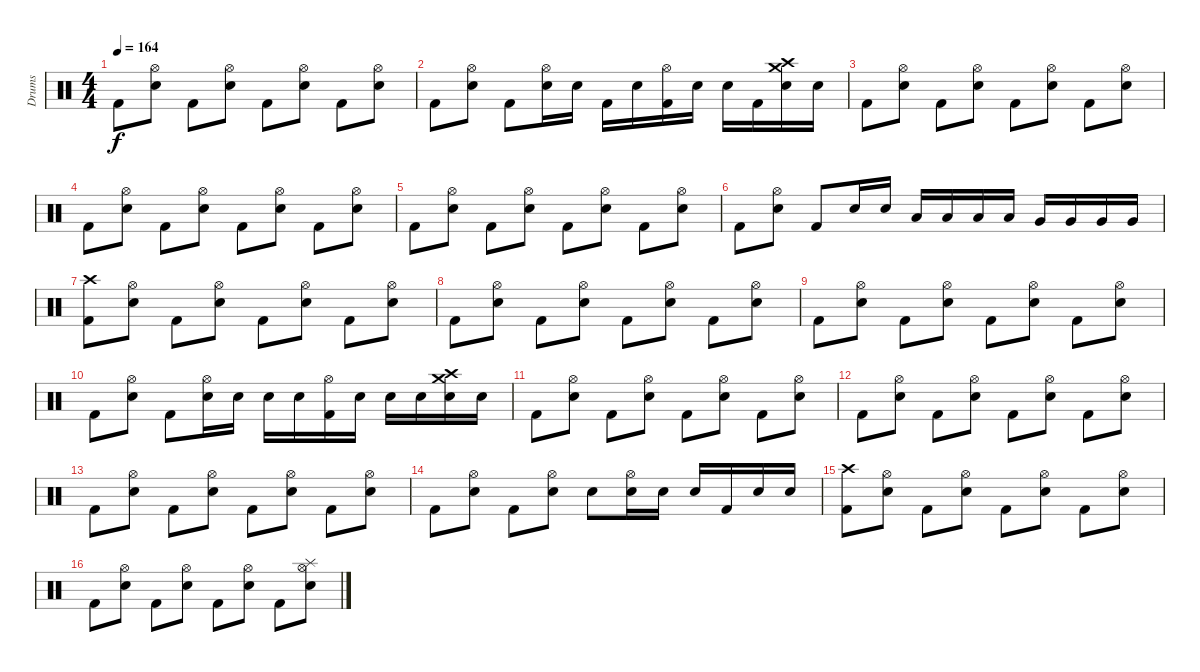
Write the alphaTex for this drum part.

\track ("Drums " "Drums ") {instrument percussion}
\staff {score}
\articulation defaults
\ts (4 4)
\tempo 164
\clef neutral
\ks c "Kick (hit) 2".8{dy f}
("Snare (hit) 2" "Hi-Hat (open)").8 "Kick (hit) 2".8 ("Snare (hit) 2" "Hi-Hat (open)").8 "Kick (hit) 2".8 ("Snare (hit) 2" "Hi-Hat (open)").8 "Kick (hit) 2".8 ("Snare (hit) 2" "Hi-Hat (open)").8 |
"Kick (hit) 2".8 ("Snare (hit) 2" "Hi-Hat (open)").8 "Kick (hit) 2".8 ("Hi-Hat (open)" "Snare (hit) 2").16 "Snare (hit) 2".16 "Kick (hit) 2".16 "Snare (hit) 2".16 ("Kick (hit) 2" "Hi-Hat (open)").16 "Snare (hit) 2".16 "Snare (hit) 2".16 "Kick (hit) 2".16 ("Snare (hit) 2" "Crash high (hit)" "Crash medium (hit)").16 "Snare (hit) 2".16 |
"Kick (hit) 2".8 ("Snare (hit) 2" "Hi-Hat (open)").8 "Kick (hit) 2".8 ("Snare (hit) 2" "Hi-Hat (open)").8 "Kick (hit) 2".8 ("Snare (hit) 2" "Hi-Hat (open)").8 "Kick (hit) 2".8 ("Snare (hit) 2" "Hi-Hat (open)").8 |
"Kick (hit) 2".8 ("Snare (hit) 2" "Hi-Hat (open)").8 "Kick (hit) 2".8 ("Snare (hit) 2" "Hi-Hat (open)").8 "Kick (hit) 2".8 ("Snare (hit) 2" "Hi-Hat (open)").8 "Kick (hit) 2".8 ("Snare (hit) 2" "Hi-Hat (open)").8 |
"Kick (hit) 2".8 ("Snare (hit) 2" "Hi-Hat (open)").8 "Kick (hit) 2".8 ("Snare (hit) 2" "Hi-Hat (open)").8 "Kick (hit) 2".8 ("Snare (hit) 2" "Hi-Hat (open)").8 "Kick (hit) 2".8 ("Snare (hit) 2" "Hi-Hat (open)").8 |
"Kick (hit) 2".8 ("Snare (hit) 2" "Hi-Hat (open)").8 "Kick (hit) 2".8 "Snare (hit) 2".16 "Snare (hit) 2".16 "Low Tom (hit)".16 "Low Tom (hit)".16 "Low Tom (hit)".16 "Low Tom (hit)".16 "Very Low Tom (hit)".16 "Very Low Tom (hit)".16 "Very Low Tom (hit)".16 "Very Low Tom (hit)".16 |
("Crash high (hit)" "Kick (hit) 2").8 ("Snare (hit) 2" "Hi-Hat (open)").8 "Kick (hit) 2".8 ("Snare (hit) 2" "Hi-Hat (open)").8 "Kick (hit) 2".8 ("Snare (hit) 2" "Hi-Hat (open)").8 "Kick (hit) 2".8 ("Snare (hit) 2" "Hi-Hat (open)").8 |
"Kick (hit) 2".8 ("Snare (hit) 2" "Hi-Hat (open)").8 "Kick (hit) 2".8 ("Snare (hit) 2" "Hi-Hat (open)").8 "Kick (hit) 2".8 ("Snare (hit) 2" "Hi-Hat (open)").8 "Kick (hit) 2".8 ("Snare (hit) 2" "Hi-Hat (open)").8 |
"Kick (hit) 2".8 ("Snare (hit) 2" "Hi-Hat (open)").8 "Kick (hit) 2".8 ("Snare (hit) 2" "Hi-Hat (open)").8 "Kick (hit) 2".8 ("Snare (hit) 2" "Hi-Hat (open)").8 "Kick (hit) 2".8 ("Snare (hit) 2" "Hi-Hat (open)").8 |
"Kick (hit) 2".8 ("Snare (hit) 2" "Hi-Hat (open)").8 "Kick (hit) 2".8 ("Hi-Hat (open)" "Snare (hit) 2").16 "Snare (hit) 2".16 "Snare (hit) 2".16 "Snare (hit) 2".16 ("Kick (hit) 2" "Hi-Hat (open)").16 "Snare (hit) 2".16 "Snare (hit) 2".16 "Snare (hit) 2".16 ("Snare (hit) 2" "Crash high (hit)" "Crash medium (hit)").16 "Snare (hit) 2".16 |
"Kick (hit) 2".8 ("Snare (hit) 2" "Hi-Hat (open)").8 "Kick (hit) 2".8 ("Snare (hit) 2" "Hi-Hat (open)").8 "Kick (hit) 2".8 ("Snare (hit) 2" "Hi-Hat (open)").8 "Kick (hit) 2".8 ("Snare (hit) 2" "Hi-Hat (open)").8 |
"Kick (hit) 2".8 ("Snare (hit) 2" "Hi-Hat (open)").8 "Kick (hit) 2".8 ("Snare (hit) 2" "Hi-Hat (open)").8 "Kick (hit) 2".8 ("Snare (hit) 2" "Hi-Hat (open)").8 "Kick (hit) 2".8 ("Snare (hit) 2" "Hi-Hat (open)").8 |
"Kick (hit) 2".8 ("Snare (hit) 2" "Hi-Hat (open)").8 "Kick (hit) 2".8 ("Snare (hit) 2" "Hi-Hat (open)").8 "Kick (hit) 2".8 ("Snare (hit) 2" "Hi-Hat (open)").8 "Kick (hit) 2".8 ("Snare (hit) 2" "Hi-Hat (open)").8 |
"Kick (hit) 2".8 ("Snare (hit) 2" "Hi-Hat (open)").8 "Kick (hit) 2".8 ("Snare (hit) 2" "Hi-Hat (open)").8 "Snare (hit) 2".8 ("Hi-Hat (open)" "Snare (hit) 2").16 "Snare (hit) 2".16 "Snare (hit) 2".16 "Kick (hit) 2".16 "Snare (hit) 2".16 "Snare (hit) 2".16 |
("Kick (hit) 2" "Crash high (hit)").8 ("Snare (hit) 2" "Hi-Hat (open)").8 "Kick (hit) 2".8 ("Snare (hit) 2" "Hi-Hat (open)").8 "Kick (hit) 2".8 ("Snare (hit) 2" "Hi-Hat (open)").8 "Kick (hit) 2".8 ("Snare (hit) 2" "Hi-Hat (open)").8 |
"Kick (hit) 2".8 ("Snare (hit) 2" "Hi-Hat (open)").8 "Kick (hit) 2".8 ("Snare (hit) 2" "Hi-Hat (open)").8 "Kick (hit) 2".8 ("Snare (hit) 2" "Hi-Hat (open)").8 "Kick (hit) 2".8 ("Snare (hit) 2" "Hi-Hat (open)" "Splash (hit)").8
